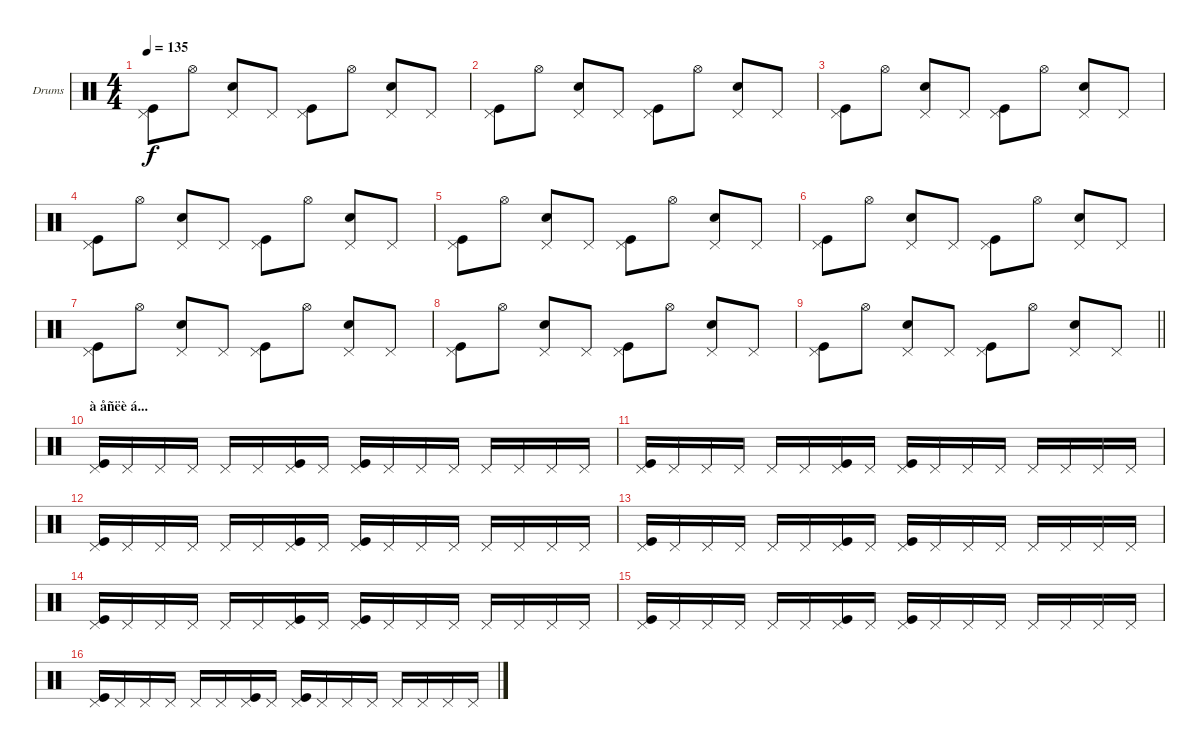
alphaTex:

\bracketExtendMode groupsimilarinstruments
\firstSystemTrackNameOrientation horizontal
\otherSystemsTrackNameOrientation horizontal
\track ("Drumkit" "Drums") {instrument percussion}
\staff {score}
\articulation defaults
\ts (4 4)
\tempo 135
\clef neutral
\ks c
("Pedal Hi-Hat (hit)" "Kick (hit)").8{dy f} "Hi-Hat (open)".8 ("Pedal Hi-Hat (hit)" "Snare (hit) 2").8 "Pedal Hi-Hat (hit)".8 ("Pedal Hi-Hat (hit)" "Kick (hit)").8 "Hi-Hat (open)".8 ("Pedal Hi-Hat (hit)" "Snare (hit) 2").8 "Pedal Hi-Hat (hit)".8 |
("Pedal Hi-Hat (hit)" "Kick (hit)").8 "Hi-Hat (open)".8 ("Pedal Hi-Hat (hit)" "Snare (hit) 2").8 "Pedal Hi-Hat (hit)".8 ("Pedal Hi-Hat (hit)" "Kick (hit)").8 "Hi-Hat (open)".8 ("Pedal Hi-Hat (hit)" "Snare (hit) 2").8 "Pedal Hi-Hat (hit)".8 |
("Pedal Hi-Hat (hit)" "Kick (hit)").8 "Hi-Hat (open)".8 ("Pedal Hi-Hat (hit)" "Snare (hit) 2").8 "Pedal Hi-Hat (hit)".8 ("Pedal Hi-Hat (hit)" "Kick (hit)").8 "Hi-Hat (open)".8 ("Pedal Hi-Hat (hit)" "Snare (hit) 2").8 "Pedal Hi-Hat (hit)".8 |
("Pedal Hi-Hat (hit)" "Kick (hit)").8 "Hi-Hat (open)".8 ("Pedal Hi-Hat (hit)" "Snare (hit) 2").8 "Pedal Hi-Hat (hit)".8 ("Pedal Hi-Hat (hit)" "Kick (hit)").8 "Hi-Hat (open)".8 ("Pedal Hi-Hat (hit)" "Snare (hit) 2").8 "Pedal Hi-Hat (hit)".8 |
("Pedal Hi-Hat (hit)" "Kick (hit)").8 "Hi-Hat (open)".8 ("Pedal Hi-Hat (hit)" "Snare (hit) 2").8 "Pedal Hi-Hat (hit)".8 ("Pedal Hi-Hat (hit)" "Kick (hit)").8 "Hi-Hat (open)".8 ("Pedal Hi-Hat (hit)" "Snare (hit) 2").8 "Pedal Hi-Hat (hit)".8 |
("Pedal Hi-Hat (hit)" "Kick (hit)").8 "Hi-Hat (open)".8 ("Pedal Hi-Hat (hit)" "Snare (hit) 2").8 "Pedal Hi-Hat (hit)".8 ("Pedal Hi-Hat (hit)" "Kick (hit)").8 "Hi-Hat (open)".8 ("Pedal Hi-Hat (hit)" "Snare (hit) 2").8 "Pedal Hi-Hat (hit)".8 |
("Pedal Hi-Hat (hit)" "Kick (hit)").8 "Hi-Hat (open)".8 ("Pedal Hi-Hat (hit)" "Snare (hit) 2").8 "Pedal Hi-Hat (hit)".8 ("Pedal Hi-Hat (hit)" "Kick (hit)").8 "Hi-Hat (open)".8 ("Pedal Hi-Hat (hit)" "Snare (hit) 2").8 "Pedal Hi-Hat (hit)".8 |
("Pedal Hi-Hat (hit)" "Kick (hit)").8 "Hi-Hat (open)".8 ("Pedal Hi-Hat (hit)" "Snare (hit) 2").8 "Pedal Hi-Hat (hit)".8 ("Pedal Hi-Hat (hit)" "Kick (hit)").8 "Hi-Hat (open)".8 ("Pedal Hi-Hat (hit)" "Snare (hit) 2").8 "Pedal Hi-Hat (hit)".8 |
\barLineRight lightlight
("Pedal Hi-Hat (hit)" "Kick (hit)").8 "Hi-Hat (open)".8 ("Pedal Hi-Hat (hit)" "Snare (hit) 2").8 "Pedal Hi-Hat (hit)".8 ("Pedal Hi-Hat (hit)" "Kick (hit)").8 "Hi-Hat (open)".8 ("Pedal Hi-Hat (hit)" "Snare (hit) 2").8 "Pedal Hi-Hat (hit)".8 |
\section ("" "à åñëè á...")
("Pedal Hi-Hat (hit)" "Kick (hit)").16 "Pedal Hi-Hat (hit)".16 "Pedal Hi-Hat (hit)".16 "Pedal Hi-Hat (hit)".16 "Pedal Hi-Hat (hit)".16 "Pedal Hi-Hat (hit)".16 ("Pedal Hi-Hat (hit)" "Kick (hit)").16 "Pedal Hi-Hat (hit)".16 ("Pedal Hi-Hat (hit)" "Kick (hit)").16 "Pedal Hi-Hat (hit)".16 "Pedal Hi-Hat (hit)".16 "Pedal Hi-Hat (hit)".16 "Pedal Hi-Hat (hit)".16 "Pedal Hi-Hat (hit)".16 "Pedal Hi-Hat (hit)".16 "Pedal Hi-Hat (hit)".16 |
("Pedal Hi-Hat (hit)" "Kick (hit)").16 "Pedal Hi-Hat (hit)".16 "Pedal Hi-Hat (hit)".16 "Pedal Hi-Hat (hit)".16 "Pedal Hi-Hat (hit)".16 "Pedal Hi-Hat (hit)".16 ("Pedal Hi-Hat (hit)" "Kick (hit)").16 "Pedal Hi-Hat (hit)".16 ("Pedal Hi-Hat (hit)" "Kick (hit)").16 "Pedal Hi-Hat (hit)".16 "Pedal Hi-Hat (hit)".16 "Pedal Hi-Hat (hit)".16 "Pedal Hi-Hat (hit)".16 "Pedal Hi-Hat (hit)".16 "Pedal Hi-Hat (hit)".16 "Pedal Hi-Hat (hit)".16 |
("Pedal Hi-Hat (hit)" "Kick (hit)").16 "Pedal Hi-Hat (hit)".16 "Pedal Hi-Hat (hit)".16 "Pedal Hi-Hat (hit)".16 "Pedal Hi-Hat (hit)".16 "Pedal Hi-Hat (hit)".16 ("Pedal Hi-Hat (hit)" "Kick (hit)").16 "Pedal Hi-Hat (hit)".16 ("Pedal Hi-Hat (hit)" "Kick (hit)").16 "Pedal Hi-Hat (hit)".16 "Pedal Hi-Hat (hit)".16 "Pedal Hi-Hat (hit)".16 "Pedal Hi-Hat (hit)".16 "Pedal Hi-Hat (hit)".16 "Pedal Hi-Hat (hit)".16 "Pedal Hi-Hat (hit)".16 |
("Pedal Hi-Hat (hit)" "Kick (hit)").16 "Pedal Hi-Hat (hit)".16 "Pedal Hi-Hat (hit)".16 "Pedal Hi-Hat (hit)".16 "Pedal Hi-Hat (hit)".16 "Pedal Hi-Hat (hit)".16 ("Pedal Hi-Hat (hit)" "Kick (hit)").16 "Pedal Hi-Hat (hit)".16 ("Pedal Hi-Hat (hit)" "Kick (hit)").16 "Pedal Hi-Hat (hit)".16 "Pedal Hi-Hat (hit)".16 "Pedal Hi-Hat (hit)".16 "Pedal Hi-Hat (hit)".16 "Pedal Hi-Hat (hit)".16 "Pedal Hi-Hat (hit)".16 "Pedal Hi-Hat (hit)".16 |
("Pedal Hi-Hat (hit)" "Kick (hit)").16 "Pedal Hi-Hat (hit)".16 "Pedal Hi-Hat (hit)".16 "Pedal Hi-Hat (hit)".16 "Pedal Hi-Hat (hit)".16 "Pedal Hi-Hat (hit)".16 ("Pedal Hi-Hat (hit)" "Kick (hit)").16 "Pedal Hi-Hat (hit)".16 ("Pedal Hi-Hat (hit)" "Kick (hit)").16 "Pedal Hi-Hat (hit)".16 "Pedal Hi-Hat (hit)".16 "Pedal Hi-Hat (hit)".16 "Pedal Hi-Hat (hit)".16 "Pedal Hi-Hat (hit)".16 "Pedal Hi-Hat (hit)".16 "Pedal Hi-Hat (hit)".16 |
("Pedal Hi-Hat (hit)" "Kick (hit)").16 "Pedal Hi-Hat (hit)".16 "Pedal Hi-Hat (hit)".16 "Pedal Hi-Hat (hit)".16 "Pedal Hi-Hat (hit)".16 "Pedal Hi-Hat (hit)".16 ("Pedal Hi-Hat (hit)" "Kick (hit)").16 "Pedal Hi-Hat (hit)".16 ("Pedal Hi-Hat (hit)" "Kick (hit)").16 "Pedal Hi-Hat (hit)".16 "Pedal Hi-Hat (hit)".16 "Pedal Hi-Hat (hit)".16 "Pedal Hi-Hat (hit)".16 "Pedal Hi-Hat (hit)".16 "Pedal Hi-Hat (hit)".16 "Pedal Hi-Hat (hit)".16 |
("Pedal Hi-Hat (hit)" "Kick (hit)").16 "Pedal Hi-Hat (hit)".16 "Pedal Hi-Hat (hit)".16 "Pedal Hi-Hat (hit)".16 "Pedal Hi-Hat (hit)".16 "Pedal Hi-Hat (hit)".16 ("Pedal Hi-Hat (hit)" "Kick (hit)").16 "Pedal Hi-Hat (hit)".16 ("Pedal Hi-Hat (hit)" "Kick (hit)").16 "Pedal Hi-Hat (hit)".16 "Pedal Hi-Hat (hit)".16 "Pedal Hi-Hat (hit)".16 "Pedal Hi-Hat (hit)".16 "Pedal Hi-Hat (hit)".16 "Pedal Hi-Hat (hit)".16 "Pedal Hi-Hat (hit)".16
